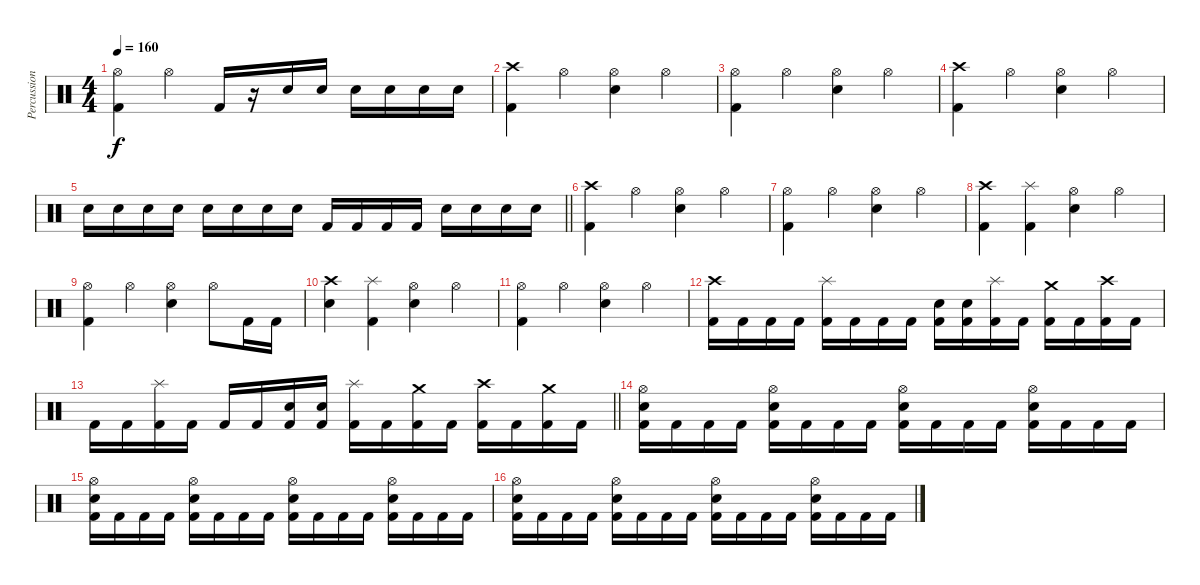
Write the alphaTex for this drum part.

\track ("Percussion" "Percussion") {instrument percussion}
\staff {score}
\articulation defaults
\ts (4 4)
\tempo 160
\clef neutral
\ks c
("Hi-Hat (open)" "Kick (hit) 2").4{dy f} "Hi-Hat (open)".4 "Kick (hit) 2".16 r.16 "Snare (hit) 2".16 "Snare (hit) 2".16 "Snare (hit) 2".16 "Snare (hit) 2".16 "Snare (hit) 2".16 "Snare (hit) 2".16 |
("Crash high (hit)" "Kick (hit) 2").4 "Hi-Hat (open)".4 ("Hi-Hat (open)" "Snare (hit) 2").4 "Hi-Hat (open)".4 |
("Hi-Hat (open)" "Kick (hit) 2").4 "Hi-Hat (open)".4 ("Hi-Hat (open)" "Snare (hit) 2").4 "Hi-Hat (open)".4 |
("Crash high (hit)" "Kick (hit) 2").4 "Hi-Hat (open)".4 ("Hi-Hat (open)" "Snare (hit) 2").4 "Hi-Hat (open)".4 |
\barLineRight lightlight "Snare (hit) 2".16 "Snare (hit) 2".16 "Snare (hit) 2".16 "Snare (hit) 2".16 "Snare (hit) 2".16 "Snare (hit) 2".16 "Snare (hit) 2".16 "Snare (hit) 2".16 "Kick (hit) 2".16 "Kick (hit) 2".16 "Kick (hit) 2".16 "Kick (hit) 2".16 "Snare (hit) 2".16 "Snare (hit) 2".16 "Snare (hit) 2".16 "Snare (hit) 2".16
|
("Crash high (hit)" "Kick (hit) 2").4 "Hi-Hat (open)".4 ("Hi-Hat (open)" "Snare (hit) 2").4 "Hi-Hat (open)".4 |
("Hi-Hat (open)" "Kick (hit) 2").4 "Hi-Hat (open)".4 ("Hi-Hat (open)" "Snare (hit) 2").4 "Hi-Hat (open)".4 |
("Crash high (hit)" "Kick (hit) 2").4 ("Splash (hit)" "Kick (hit) 2").4 ("Hi-Hat (open)" "Snare (hit) 2").4 "Hi-Hat (open)".4 |
("Hi-Hat (open)" "Kick (hit) 2").4 "Hi-Hat (open)".4 ("Hi-Hat (open)" "Snare (hit) 2").4 "Hi-Hat (open)".8 "Kick (hit) 2".16 "Kick (hit) 2".16 |
("Crash high (hit)" "Snare (hit) 2").4 ("Splash (hit)" "Kick (hit) 2").4 ("Hi-Hat (open)" "Snare (hit) 2").4 "Hi-Hat (open)".4 |
("Hi-Hat (open)" "Kick (hit) 2").4 "Hi-Hat (open)".4 ("Hi-Hat (open)" "Snare (hit) 2").4 "Hi-Hat (open)".4 |
("Crash high (hit)" "Kick (hit) 2").16 "Kick (hit) 2".16 "Kick (hit) 2".16 "Kick (hit) 2".16 ("Splash (hit)" "Kick (hit) 2").16 "Kick (hit) 2".16 "Kick (hit) 2".16 "Kick (hit) 2".16 ("Snare (hit) 2" "Kick (hit) 2").16 ("Snare (hit) 2" "Kick (hit) 2").16 ("Splash (hit)" "Kick (hit) 2").16 "Kick (hit) 2".16 ("Crash medium (hit)" "Kick (hit) 2").16 "Kick (hit) 2".16 ("Crash high (hit)" "Kick (hit) 2").16 "Kick (hit) 2".16 |
\barLineRight lightlight "Kick (hit) 2".16 "Kick (hit) 2".16
("Splash (hit)" "Kick (hit) 2").16 "Kick (hit) 2".16 "Kick (hit) 2".16 "Kick (hit) 2".16 ("Snare (hit) 2" "Kick (hit) 2").16 ("Snare (hit) 2" "Kick (hit) 2").16 ("Splash (hit)" "Kick (hit) 2").16 "Kick (hit) 2".16 ("Crash medium (hit)" "Kick (hit) 2").16 "Kick (hit) 2".16 ("Crash high (hit)" "Kick (hit) 2").16 "Kick (hit) 2".16 ("Crash medium (hit)" "Kick (hit) 2").16 "Kick (hit) 2".16 |
("Hi-Hat (open)" "Snare (hit) 2" "Kick (hit) 2").16 "Kick (hit) 2".16 "Kick (hit) 2".16 "Kick (hit) 2".16 ("Hi-Hat (open)" "Snare (hit) 2" "Kick (hit) 2").16 "Kick (hit) 2".16 "Kick (hit) 2".16 "Kick (hit) 2".16 ("Hi-Hat (open)" "Snare (hit) 2" "Kick (hit) 2").16 "Kick (hit) 2".16 "Kick (hit) 2".16 "Kick (hit) 2".16 ("Hi-Hat (open)" "Snare (hit) 2" "Kick (hit) 2").16 "Kick (hit) 2".16 "Kick (hit) 2".16 "Kick (hit) 2".16 |
("Hi-Hat (open)" "Snare (hit) 2" "Kick (hit) 2").16 "Kick (hit) 2".16 "Kick (hit) 2".16 "Kick (hit) 2".16 ("Hi-Hat (open)" "Snare (hit) 2" "Kick (hit) 2").16 "Kick (hit) 2".16 "Kick (hit) 2".16 "Kick (hit) 2".16 ("Hi-Hat (open)" "Snare (hit) 2" "Kick (hit) 2").16 "Kick (hit) 2".16 "Kick (hit) 2".16 "Kick (hit) 2".16 ("Hi-Hat (open)" "Snare (hit) 2" "Kick (hit) 2").16 "Kick (hit) 2".16 "Kick (hit) 2".16 "Kick (hit) 2".16 |
("Hi-Hat (open)" "Snare (hit) 2" "Kick (hit) 2").16 "Kick (hit) 2".16 "Kick (hit) 2".16 "Kick (hit) 2".16 ("Hi-Hat (open)" "Snare (hit) 2" "Kick (hit) 2").16 "Kick (hit) 2".16 "Kick (hit) 2".16 "Kick (hit) 2".16 ("Hi-Hat (open)" "Snare (hit) 2" "Kick (hit) 2").16 "Kick (hit) 2".16 "Kick (hit) 2".16 "Kick (hit) 2".16 ("Hi-Hat (open)" "Snare (hit) 2" "Kick (hit) 2").16 "Kick (hit) 2".16 "Kick (hit) 2".16 "Kick (hit) 2".16
